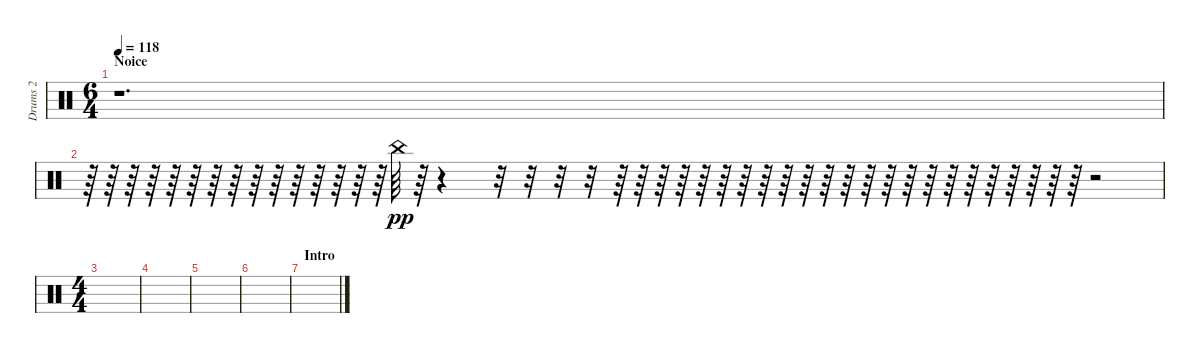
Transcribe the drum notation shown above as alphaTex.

\track ("Drums 2" "Drums 2") {instrument percussion}
\staff {score}
\articulation defaults
\ts (6 4)
\section ("" "Noice")
\tempo 118
\clef neutral
\ks c
r.1{d dy pp} |
r.64 r.64 r.64 r.64 r.64 r.64 r.64 r.64 r.64 r.64 r.64 r.64 r.64 r.64 r.64 "China (hit)".64 r.64 r.4 r.32 r.32 r.32 r.32 r.64 r.64 r.64 r.64 r.64 r.64 r.64 r.64 r.64 r.64 r.64 r.64 r.64 r.64 r.64 r.64 r.64 r.64 r.64 r.64 r.64 r.64 r.64 r.2 |
\ts (4 4)
|
|
|
|
\section ("" "Intro")
